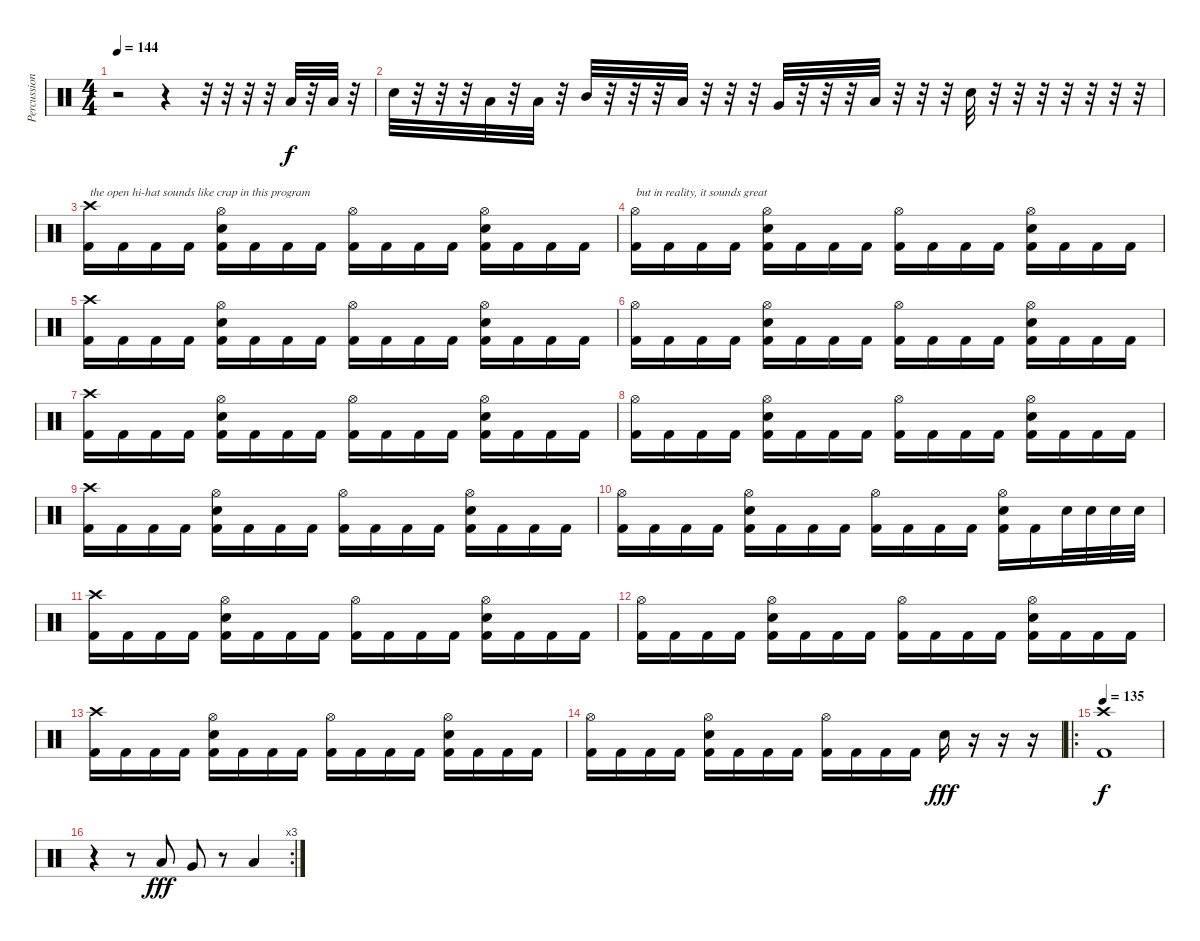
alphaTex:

\track ("Percussion" "Percussion") {instrument percussion}
\staff {score}
\articulation defaults
\ts (4 4)
\tempo 144
\clef neutral
\ks c
r.2{dy f} r.4 r.32 r.32 r.32 r.32 "Low Floor Tom (hit)".32 r.32 "Low Floor Tom (hit)".32 r.32 |
"Snare (hit) 2".32 r.32 r.32 r.32 "Low Floor Tom (hit)".32 r.32 "Low Floor Tom (hit)".32 r.32 "Mid Tom (hit)".32 r.32 r.32 r.32 "Low Tom (hit)".32 r.32 r.32 r.32 "Very Low Tom (hit)".32 r.32 r.32 r.32 "Low Floor Tom (hit)".32 r.32 r.32 r.32 "Snare (hit) 2".32 r.32 r.32 r.32 r.32 r.32 r.32 r.32 |
("Crash high (hit)" "Kick (hit) 2").16{txt "the open hi-hat sounds like crap in this program"} "Kick (hit) 2".16 "Kick (hit) 2".16 "Kick (hit) 2".16 ("Hi-Hat (open)" "Snare (hit) 2" "Kick (hit) 2").16 "Kick (hit) 2".16 "Kick (hit) 2".16 "Kick (hit) 2".16 ("Hi-Hat (open)" "Kick (hit) 2").16 "Kick (hit) 2".16 "Kick (hit) 2".16 "Kick (hit) 2".16 ("Hi-Hat (open)" "Snare (hit) 2" "Kick (hit) 2").16 "Kick (hit) 2".16 "Kick (hit) 2".16 "Kick (hit) 2".16 |
("Hi-Hat (open)" "Kick (hit) 2").16{txt "but in reality, it sounds great"} "Kick (hit) 2".16 "Kick (hit) 2".16 "Kick (hit) 2".16 ("Hi-Hat (open)" "Snare (hit) 2" "Kick (hit) 2").16 "Kick (hit) 2".16 "Kick (hit) 2".16 "Kick (hit) 2".16 ("Hi-Hat (open)" "Kick (hit) 2").16 "Kick (hit) 2".16 "Kick (hit) 2".16 "Kick (hit) 2".16 ("Hi-Hat (open)" "Snare (hit) 2" "Kick (hit) 2").16 "Kick (hit) 2".16 "Kick (hit) 2".16 "Kick (hit) 2".16 |
("Crash high (hit)" "Kick (hit) 2").16 "Kick (hit) 2".16 "Kick (hit) 2".16 "Kick (hit) 2".16 ("Hi-Hat (open)" "Snare (hit) 2" "Kick (hit) 2").16 "Kick (hit) 2".16 "Kick (hit) 2".16 "Kick (hit) 2".16 ("Hi-Hat (open)" "Kick (hit) 2").16 "Kick (hit) 2".16 "Kick (hit) 2".16 "Kick (hit) 2".16 ("Hi-Hat (open)" "Snare (hit) 2" "Kick (hit) 2").16 "Kick (hit) 2".16 "Kick (hit) 2".16 "Kick (hit) 2".16 |
("Hi-Hat (open)" "Kick (hit) 2").16 "Kick (hit) 2".16 "Kick (hit) 2".16 "Kick (hit) 2".16 ("Hi-Hat (open)" "Snare (hit) 2" "Kick (hit) 2").16 "Kick (hit) 2".16 "Kick (hit) 2".16 "Kick (hit) 2".16 ("Hi-Hat (open)" "Kick (hit) 2").16 "Kick (hit) 2".16 "Kick (hit) 2".16 "Kick (hit) 2".16 ("Hi-Hat (open)" "Snare (hit) 2" "Kick (hit) 2").16 "Kick (hit) 2".16 "Kick (hit) 2".16 "Kick (hit) 2".16 |
("Crash high (hit)" "Kick (hit) 2").16 "Kick (hit) 2".16 "Kick (hit) 2".16 "Kick (hit) 2".16 ("Hi-Hat (open)" "Snare (hit) 2" "Kick (hit) 2").16 "Kick (hit) 2".16 "Kick (hit) 2".16 "Kick (hit) 2".16 ("Hi-Hat (open)" "Kick (hit) 2").16 "Kick (hit) 2".16 "Kick (hit) 2".16 "Kick (hit) 2".16 ("Hi-Hat (open)" "Snare (hit) 2" "Kick (hit) 2").16 "Kick (hit) 2".16 "Kick (hit) 2".16 "Kick (hit) 2".16 |
("Hi-Hat (open)" "Kick (hit) 2").16 "Kick (hit) 2".16 "Kick (hit) 2".16 "Kick (hit) 2".16 ("Hi-Hat (open)" "Snare (hit) 2" "Kick (hit) 2").16 "Kick (hit) 2".16 "Kick (hit) 2".16 "Kick (hit) 2".16 ("Hi-Hat (open)" "Kick (hit) 2").16 "Kick (hit) 2".16 "Kick (hit) 2".16 "Kick (hit) 2".16 ("Hi-Hat (open)" "Snare (hit) 2" "Kick (hit) 2").16 "Kick (hit) 2".16 "Kick (hit) 2".16 "Kick (hit) 2".16 |
("Crash high (hit)" "Kick (hit) 2").16 "Kick (hit) 2".16 "Kick (hit) 2".16 "Kick (hit) 2".16 ("Hi-Hat (open)" "Snare (hit) 2" "Kick (hit) 2").16 "Kick (hit) 2".16 "Kick (hit) 2".16 "Kick (hit) 2".16 ("Hi-Hat (open)" "Kick (hit) 2").16 "Kick (hit) 2".16 "Kick (hit) 2".16 "Kick (hit) 2".16 ("Hi-Hat (open)" "Snare (hit) 2" "Kick (hit) 2").16 "Kick (hit) 2".16 "Kick (hit) 2".16 "Kick (hit) 2".16 |
("Hi-Hat (open)" "Kick (hit) 2").16 "Kick (hit) 2".16 "Kick (hit) 2".16 "Kick (hit) 2".16 ("Hi-Hat (open)" "Snare (hit) 2" "Kick (hit) 2").16 "Kick (hit) 2".16 "Kick (hit) 2".16 "Kick (hit) 2".16 ("Hi-Hat (open)" "Kick (hit) 2").16 "Kick (hit) 2".16 "Kick (hit) 2".16 "Kick (hit) 2".16 ("Hi-Hat (open)" "Snare (hit) 2" "Kick (hit) 2").16 "Kick (hit) 2".16 "Snare (hit) 2".32 "Snare (hit) 2".32 "Snare (hit) 2".32 "Snare (hit) 2".32 |
("Crash high (hit)" "Kick (hit) 2").16 "Kick (hit) 2".16 "Kick (hit) 2".16 "Kick (hit) 2".16 ("Hi-Hat (open)" "Snare (hit) 2" "Kick (hit) 2").16 "Kick (hit) 2".16 "Kick (hit) 2".16 "Kick (hit) 2".16 ("Hi-Hat (open)" "Kick (hit) 2").16 "Kick (hit) 2".16 "Kick (hit) 2".16 "Kick (hit) 2".16 ("Hi-Hat (open)" "Snare (hit) 2" "Kick (hit) 2").16 "Kick (hit) 2".16 "Kick (hit) 2".16 "Kick (hit) 2".16 |
("Hi-Hat (open)" "Kick (hit) 2").16 "Kick (hit) 2".16 "Kick (hit) 2".16 "Kick (hit) 2".16 ("Hi-Hat (open)" "Snare (hit) 2" "Kick (hit) 2").16 "Kick (hit) 2".16 "Kick (hit) 2".16 "Kick (hit) 2".16 ("Hi-Hat (open)" "Kick (hit) 2").16 "Kick (hit) 2".16 "Kick (hit) 2".16 "Kick (hit) 2".16 ("Hi-Hat (open)" "Snare (hit) 2" "Kick (hit) 2").16 "Kick (hit) 2".16 "Kick (hit) 2".16 "Kick (hit) 2".16 |
("Crash high (hit)" "Kick (hit) 2").16 "Kick (hit) 2".16 "Kick (hit) 2".16 "Kick (hit) 2".16 ("Hi-Hat (open)" "Snare (hit) 2" "Kick (hit) 2").16 "Kick (hit) 2".16 "Kick (hit) 2".16 "Kick (hit) 2".16 ("Hi-Hat (open)" "Kick (hit) 2").16 "Kick (hit) 2".16 "Kick (hit) 2".16 "Kick (hit) 2".16 ("Hi-Hat (open)" "Snare (hit) 2" "Kick (hit) 2").16 "Kick (hit) 2".16 "Kick (hit) 2".16 "Kick (hit) 2".16 |
("Hi-Hat (open)" "Kick (hit) 2").16 "Kick (hit) 2".16 "Kick (hit) 2".16 "Kick (hit) 2".16 ("Hi-Hat (open)" "Snare (hit) 2" "Kick (hit) 2").16 "Kick (hit) 2".16 "Kick (hit) 2".16 "Kick (hit) 2".16 ("Hi-Hat (open)" "Kick (hit) 2").16 "Kick (hit) 2".16 "Kick (hit) 2".16 "Kick (hit) 2".16 "Snare (hit) 2".16{dy fff} r.16 r.16 r.16 |
\ro
\tempo 135
("Crash high (hit)" "Kick (hit) 2").1{dy f} |
\rc 3
r.4 r.8 "Low Tom (hit)".8{dy fff} "Very Low Tom (hit)".8 r.8 "Low Floor Tom (hit)".4
